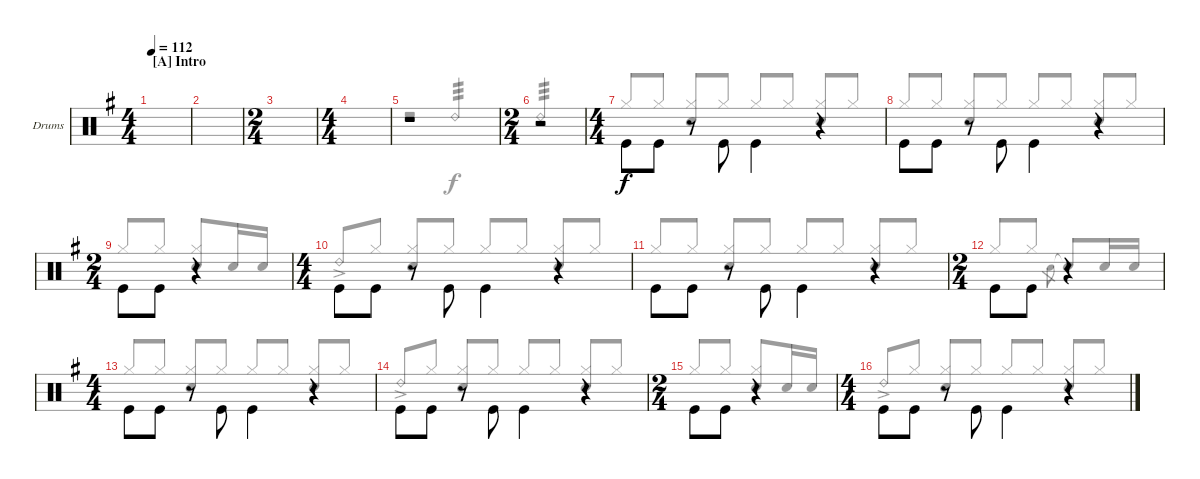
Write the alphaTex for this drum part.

\defaultSystemsLayout 4
\bracketExtendMode groupsimilarinstruments
\firstSystemTrackNameOrientation horizontal
\otherSystemsTrackNameOrientation horizontal
\track ("Drumkit" "Drums") {instrument percussion}
\staff {score}
\articulation defaults
\voice
\ts (4 4)
\section ("A" "Intro")
\tempo 112
\clef neutral
\scale
1.07314
\ks g
|
\scale
0.92686 |
\ts (2 4)
\scale
1.07314 |
\ts (4 4)
\scale
0.92686 |
\scale
1.04288 r.1 |
\ts (2 4)
\scale
0.957125 r.2 |
\ts (4 4)
\scale
1.07314 "Kick (hit)".8{beam invert} "Kick (hit)".8 r.8 "Kick (hit)".8{beam invert} "Kick (hit)".4{beam invert} r.4 |
\scale
0.92686 "Kick (hit)".8{beam invert} "Kick (hit)".8 r.8 "Kick (hit)".8{beam invert} "Kick (hit)".4{beam invert} r.4 |
\ts (2 4)
\scale
1.07314 "Kick (hit)".8{beam invert} "Kick (hit)".8 r.4 |
\ts (4 4)
\scale
0.92686 "Kick (hit)".8{beam invert} "Kick (hit)".8 r.8 "Kick (hit)".8{beam invert} "Kick (hit)".4{beam invert} r.4 |
\scale
1.04288 "Kick (hit)".8{beam invert} "Kick (hit)".8 r.8 "Kick (hit)".8{beam invert} "Kick (hit)".4{beam invert} r.4 |
\ts (2 4)
\scale
0.957125 "Kick (hit)".8{beam invert} "Kick (hit)".8 r.4 |
\ts (4 4)
\scale
1.07314 "Kick (hit)".8{beam invert} "Kick (hit)".8 r.8 "Kick (hit)".8{beam invert} "Kick (hit)".4{beam invert} r.4 |
\scale
0.92686 "Kick (hit)".8{beam invert} "Kick (hit)".8 r.8 "Kick (hit)".8{beam invert} "Kick (hit)".4{beam invert} r.4 |
\ts (2 4)
\scale
1.07314 "Kick (hit)".8{beam invert} "Kick (hit)".8 r.4 |
\ts (4 4)
\scale
0.92686 "Kick (hit)".8{beam invert} "Kick (hit)".8 r.8 "Kick (hit)".8{beam invert} "Kick (hit)".4{beam invert} r.4
\voice
\clef neutral
\ottava regular
\simile none
\scale
1.07314
\ks g
|
\scale
0.92686 |
\scale
1.07314 |
\scale
0.92686 |
\scale
1.04288 r.2 "Ride (bell) 2".2{tp 3 beam invert} |
\scale
0.957125 "Ride (bell) 2".2{tp 3 beam invert} |
\scale
1.07314 "Hi-Hat (closed)".8{dy f beam invert} "Hi-Hat (closed)".8 ("Hi-Hat (closed)" "Snare (hit) 2").8{beam invert} "Hi-Hat (closed)".8 "Hi-Hat (closed)".8{beam invert} "Hi-Hat (closed)".8 ("Hi-Hat (closed)" "Snare (hit) 2").8{beam invert} "Hi-Hat (closed)".8 |
\scale
0.92686 "Hi-Hat (closed)".8{beam invert} "Hi-Hat (closed)".8 ("Hi-Hat (closed)" "Snare (hit) 2").8{beam invert} "Hi-Hat (closed)".8 "Hi-Hat (closed)".8{beam invert} "Hi-Hat (closed)".8 ("Hi-Hat (closed)" "Snare (hit) 2").8{beam invert} "Hi-Hat (closed)".8 |
\scale
1.07314 "Hi-Hat (closed)".8{beam invert} "Hi-Hat (closed)".8 ("Hi-Hat (closed)" "Snare (hit) 2").8{beam invert} "Snare (hit) 2".16 "Snare (hit) 2".16 |
\scale
0.92686 "Ride (bell) 2"{ac}.8{beam invert} "Hi-Hat (closed)".8 ("Hi-Hat (closed)" "Snare (hit) 2").8{beam invert} "Hi-Hat (closed)".8 "Hi-Hat (closed)".8{beam invert} "Hi-Hat (closed)".8 ("Hi-Hat (closed)" "Snare (hit) 2").8{beam invert} "Hi-Hat (closed)".8 |
\scale
1.04288 "Hi-Hat (closed)".8{beam invert} "Hi-Hat (closed)".8 ("Hi-Hat (closed)" "Snare (hit) 2").8{beam invert} "Hi-Hat (closed)".8 "Hi-Hat (closed)".8{beam invert} "Hi-Hat (closed)".8 ("Hi-Hat (closed)" "Snare (hit) 2").8{beam invert} "Hi-Hat (closed)".8 |
\scale
0.957125 "Hi-Hat (closed)".8{beam invert} "Hi-Hat (closed)".8 "Snare (hit) 2".8{gr} "Snare (hit) 2"{t}.8{beam invert} "Snare (hit) 2".16 "Snare (hit) 2".16 |
\scale
1.07314 "Hi-Hat (closed)".8{beam invert} "Hi-Hat (closed)".8 ("Hi-Hat (closed)" "Snare (hit) 2").8{beam invert} "Hi-Hat (closed)".8 "Hi-Hat (closed)".8{beam invert} "Hi-Hat (closed)".8 ("Hi-Hat (closed)" "Snare (hit) 2").8{beam invert} "Hi-Hat (closed)".8 |
\scale
0.92686 "Ride (bell) 2"{ac}.8{beam invert} "Hi-Hat (closed)".8 ("Hi-Hat (closed)" "Snare (hit) 2").8{beam invert} "Hi-Hat (closed)".8 "Hi-Hat (closed)".8{beam invert} "Hi-Hat (closed)".8 ("Hi-Hat (closed)" "Snare (hit) 2").8{beam invert} "Hi-Hat (closed)".8 |
\scale
1.07314 "Hi-Hat (closed)".8{beam invert} "Hi-Hat (closed)".8 ("Hi-Hat (closed)" "Snare (hit) 2").8{beam invert} "Snare (hit) 2".16 "Snare (hit) 2".16 |
\scale
0.92686 "Ride (bell) 2"{ac}.8{beam invert} "Hi-Hat (closed)".8 ("Hi-Hat (closed)" "Snare (hit) 2").8{beam invert} "Hi-Hat (closed)".8 "Hi-Hat (closed)".8{beam invert} "Hi-Hat (closed)".8 ("Hi-Hat (closed)" "Snare (hit) 2").8{beam invert} "Hi-Hat (closed)".8
